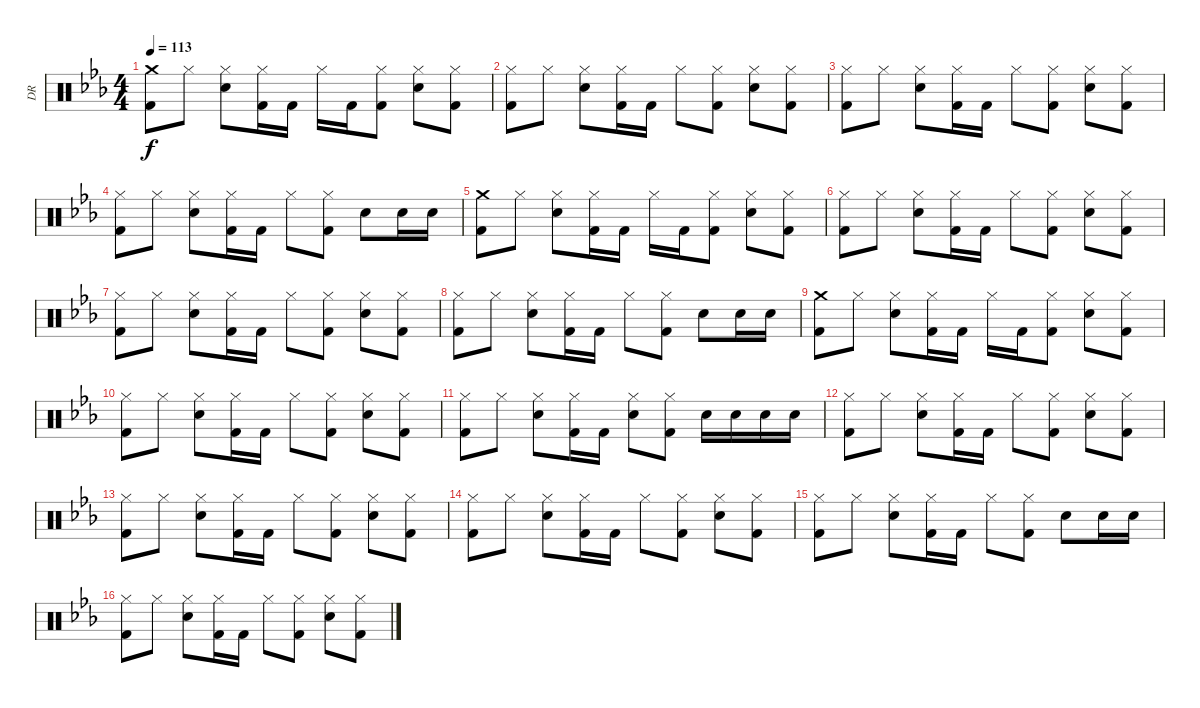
\track ("DR" "DR") {instrument percussion}
\staff {score}
\articulation defaults
\ts (4 4)
\tempo 113
\clef neutral
\ks cminor
("Crash medium (hit)" "Kick (hit) 2").8{dy f} "Hi-Hat (closed)".8 ("Hi-Hat (closed)" "Electric Snare (hit)").8 ("Hi-Hat (closed)" "Kick (hit) 2").16 "Kick (hit) 2".16 "Hi-Hat (closed)".16 "Kick (hit) 2".16 ("Hi-Hat (closed)" "Kick (hit) 2").8 ("Hi-Hat (closed)" "Electric Snare (hit)").8 ("Hi-Hat (closed)" "Kick (hit) 2").8 |
("Hi-Hat (closed)" "Kick (hit) 2").8 "Hi-Hat (closed)".8 ("Hi-Hat (closed)" "Electric Snare (hit)").8 ("Hi-Hat (closed)" "Kick (hit) 2").16 "Kick (hit) 2".16 "Hi-Hat (closed)".8 ("Hi-Hat (closed)" "Kick (hit) 2").8 ("Hi-Hat (closed)" "Electric Snare (hit)").8 ("Hi-Hat (closed)" "Kick (hit) 2").8 |
("Hi-Hat (closed)" "Kick (hit) 2").8 "Hi-Hat (closed)".8 ("Hi-Hat (closed)" "Electric Snare (hit)").8 ("Hi-Hat (closed)" "Kick (hit) 2").16 "Kick (hit) 2".16 "Hi-Hat (closed)".8 ("Hi-Hat (closed)" "Kick (hit) 2").8 ("Hi-Hat (closed)" "Electric Snare (hit)").8 ("Hi-Hat (closed)" "Kick (hit) 2").8 |
("Hi-Hat (closed)" "Kick (hit) 2").8 "Hi-Hat (closed)".8 ("Hi-Hat (closed)" "Electric Snare (hit)").8 ("Hi-Hat (closed)" "Kick (hit) 2").16 "Kick (hit) 2".16 "Hi-Hat (closed)".8 ("Hi-Hat (closed)" "Kick (hit) 2").8 "Electric Snare (hit)".8 "Electric Snare (hit)".16 "Electric Snare (hit)".16 |
("Crash medium (hit)" "Kick (hit) 2").8 "Hi-Hat (closed)".8 ("Hi-Hat (closed)" "Electric Snare (hit)").8 ("Hi-Hat (closed)" "Kick (hit) 2").16 "Kick (hit) 2".16 "Hi-Hat (closed)".16 "Kick (hit) 2".16 ("Hi-Hat (closed)" "Kick (hit) 2").8 ("Hi-Hat (closed)" "Electric Snare (hit)").8 ("Hi-Hat (closed)" "Kick (hit) 2").8 |
("Hi-Hat (closed)" "Kick (hit) 2").8 "Hi-Hat (closed)".8 ("Hi-Hat (closed)" "Electric Snare (hit)").8 ("Hi-Hat (closed)" "Kick (hit) 2").16 "Kick (hit) 2".16 "Hi-Hat (closed)".8 ("Hi-Hat (closed)" "Kick (hit) 2").8 ("Hi-Hat (closed)" "Electric Snare (hit)").8 ("Hi-Hat (closed)" "Kick (hit) 2").8 |
("Hi-Hat (closed)" "Kick (hit) 2").8 "Hi-Hat (closed)".8 ("Hi-Hat (closed)" "Electric Snare (hit)").8 ("Hi-Hat (closed)" "Kick (hit) 2").16 "Kick (hit) 2".16 "Hi-Hat (closed)".8 ("Hi-Hat (closed)" "Kick (hit) 2").8 ("Hi-Hat (closed)" "Electric Snare (hit)").8 ("Hi-Hat (closed)" "Kick (hit) 2").8 |
("Hi-Hat (closed)" "Kick (hit) 2").8 "Hi-Hat (closed)".8 ("Hi-Hat (closed)" "Electric Snare (hit)").8 ("Hi-Hat (closed)" "Kick (hit) 2").16 "Kick (hit) 2".16 "Hi-Hat (closed)".8 ("Hi-Hat (closed)" "Kick (hit) 2").8 "Electric Snare (hit)".8 "Electric Snare (hit)".16 "Electric Snare (hit)".16 |
("Crash medium (hit)" "Kick (hit) 2").8 "Hi-Hat (closed)".8 ("Hi-Hat (closed)" "Electric Snare (hit)").8 ("Hi-Hat (closed)" "Kick (hit) 2").16 "Kick (hit) 2".16 "Hi-Hat (closed)".16 "Kick (hit) 2".16 ("Hi-Hat (closed)" "Kick (hit) 2").8 ("Hi-Hat (closed)" "Electric Snare (hit)").8 ("Hi-Hat (closed)" "Kick (hit) 2").8 |
("Hi-Hat (closed)" "Kick (hit) 2").8 "Hi-Hat (closed)".8 ("Hi-Hat (closed)" "Electric Snare (hit)").8 ("Hi-Hat (closed)" "Kick (hit) 2").16 "Kick (hit) 2".16 "Hi-Hat (closed)".8 ("Hi-Hat (closed)" "Kick (hit) 2").8 ("Hi-Hat (closed)" "Electric Snare (hit)").8 ("Hi-Hat (closed)" "Kick (hit) 2").8 |
("Hi-Hat (closed)" "Kick (hit) 2").8 "Hi-Hat (closed)".8 ("Hi-Hat (closed)" "Electric Snare (hit)").8 ("Hi-Hat (closed)" "Kick (hit) 2").16 "Kick (hit) 2".16 ("Hi-Hat (closed)" "Electric Snare (hit)").8 ("Hi-Hat (closed)" "Kick (hit) 2").8 "Electric Snare (hit)".16 "Electric Snare (hit)".16 "Electric Snare (hit)".16 "Electric Snare (hit)".16 |
("Hi-Hat (closed)" "Kick (hit) 2").8 "Hi-Hat (closed)".8 ("Hi-Hat (closed)" "Electric Snare (hit)").8 ("Hi-Hat (closed)" "Kick (hit) 2").16 "Kick (hit) 2".16 "Hi-Hat (closed)".8 ("Hi-Hat (closed)" "Kick (hit) 2").8 ("Hi-Hat (closed)" "Electric Snare (hit)").8 ("Hi-Hat (closed)" "Kick (hit) 2").8 |
("Hi-Hat (closed)" "Kick (hit) 2").8 "Hi-Hat (closed)".8 ("Hi-Hat (closed)" "Electric Snare (hit)").8 ("Hi-Hat (closed)" "Kick (hit) 2").16 "Kick (hit) 2".16 "Hi-Hat (closed)".8 ("Hi-Hat (closed)" "Kick (hit) 2").8 ("Hi-Hat (closed)" "Electric Snare (hit)").8 ("Hi-Hat (closed)" "Kick (hit) 2").8 |
("Hi-Hat (closed)" "Kick (hit) 2").8 "Hi-Hat (closed)".8 ("Hi-Hat (closed)" "Electric Snare (hit)").8 ("Hi-Hat (closed)" "Kick (hit) 2").16 "Kick (hit) 2".16 "Hi-Hat (closed)".8 ("Hi-Hat (closed)" "Kick (hit) 2").8 ("Hi-Hat (closed)" "Electric Snare (hit)").8 ("Hi-Hat (closed)" "Kick (hit) 2").8 |
("Hi-Hat (closed)" "Kick (hit) 2").8 "Hi-Hat (closed)".8 ("Hi-Hat (closed)" "Electric Snare (hit)").8 ("Hi-Hat (closed)" "Kick (hit) 2").16 "Kick (hit) 2".16 "Hi-Hat (closed)".8 ("Hi-Hat (closed)" "Kick (hit) 2").8 "Electric Snare (hit)".8 "Electric Snare (hit)".16 "Electric Snare (hit)".16 |
("Hi-Hat (closed)" "Kick (hit) 2").8 "Hi-Hat (closed)".8 ("Hi-Hat (closed)" "Electric Snare (hit)").8 ("Hi-Hat (closed)" "Kick (hit) 2").16 "Kick (hit) 2".16 "Hi-Hat (closed)".8 ("Hi-Hat (closed)" "Kick (hit) 2").8 ("Hi-Hat (closed)" "Electric Snare (hit)").8 ("Hi-Hat (closed)" "Kick (hit) 2").8
